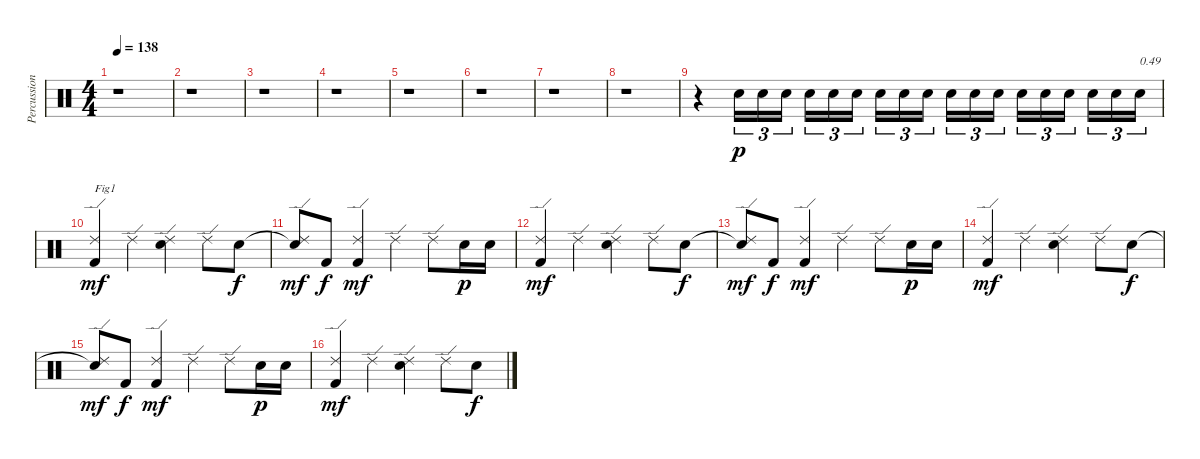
\track ("Percussions" "Percussion") {instrument percussion}
\staff {score}
\articulation defaults
\ts (4 4)
\tempo 138
\clef neutral
\ks c
r.1{dy p} |
r.1 |
r.1 |
r.1 |
r.1 |
r.1 |
r.1 |
r.1 |
r.4{volume 5} "Snare (hit) 2".16{tu (3 2) volume 10} "Snare (hit) 2".16{tu (3 2)} "Snare (hit) 2".16{tu (3 2)} "Snare (hit) 2".16{tu (3 2)} "Snare (hit) 2".16{tu (3 2)} "Snare (hit) 2".16{tu (3 2)} "Snare (hit) 2".16{tu (3 2)} "Snare (hit) 2".16{tu (3 2)} "Snare (hit) 2".16{tu (3 2)} "Snare (hit) 2".16{tu (3 2)} "Snare (hit) 2".16{tu (3 2)} "Snare (hit) 2".16{tu (3 2)} "Snare (hit) 2".16{tu (3 2)} "Snare (hit) 2".16{tu (3 2)} "Snare (hit) 2".16{tu (3 2)} "Snare (hit) 2".16{tu (3 2)} "Snare (hit) 2".16{tu (3 2)} "Snare (hit) 2".16{tu (3 2) txt "0.49"} |
("Kick (hit) 2" "Ride (edge) 2").4{txt "Fig1" dy mf} "Ride (edge) 2".4 ("Snare (hit) 2" "Ride (edge) 2").4 "Ride (edge) 2".8 "Snare (hit) 2".8{dy f} |
("Snare (hit)"{t} "Ride (edge) 2").8{dy mf} "Kick (hit) 2".8{dy f} ("Kick (hit) 2" "Ride (edge) 2").4{dy mf} "Ride (edge) 2".4 "Ride (edge) 2".8 "Snare (hit) 2".16{dy p} "Snare (hit) 2".16 |
("Kick (hit) 2" "Ride (edge) 2").4{dy mf} "Ride (edge) 2".4 ("Snare (hit) 2" "Ride (edge) 2").4 "Ride (edge) 2".8 "Snare (hit) 2".8{dy f} |
("Snare (hit)"{t} "Ride (edge) 2").8{dy mf} "Kick (hit) 2".8{dy f} ("Kick (hit) 2" "Ride (edge) 2").4{dy mf} "Ride (edge) 2".4 "Ride (edge) 2".8 "Snare (hit) 2".16{dy p} "Snare (hit) 2".16 |
("Kick (hit) 2" "Ride (edge) 2").4{dy mf} "Ride (edge) 2".4 ("Snare (hit) 2" "Ride (edge) 2").4 "Ride (edge) 2".8 "Snare (hit) 2".8{dy f} |
("Snare (hit)"{t} "Ride (edge) 2").8{dy mf} "Kick (hit) 2".8{dy f} ("Kick (hit) 2" "Ride (edge) 2").4{dy mf} "Ride (edge) 2".4 "Ride (edge) 2".8 "Snare (hit) 2".16{dy p} "Snare (hit) 2".16 |
("Kick (hit) 2" "Ride (edge) 2").4{dy mf} "Ride (edge) 2".4 ("Snare (hit) 2" "Ride (edge) 2").4 "Ride (edge) 2".8 "Snare (hit) 2".8{dy f}
